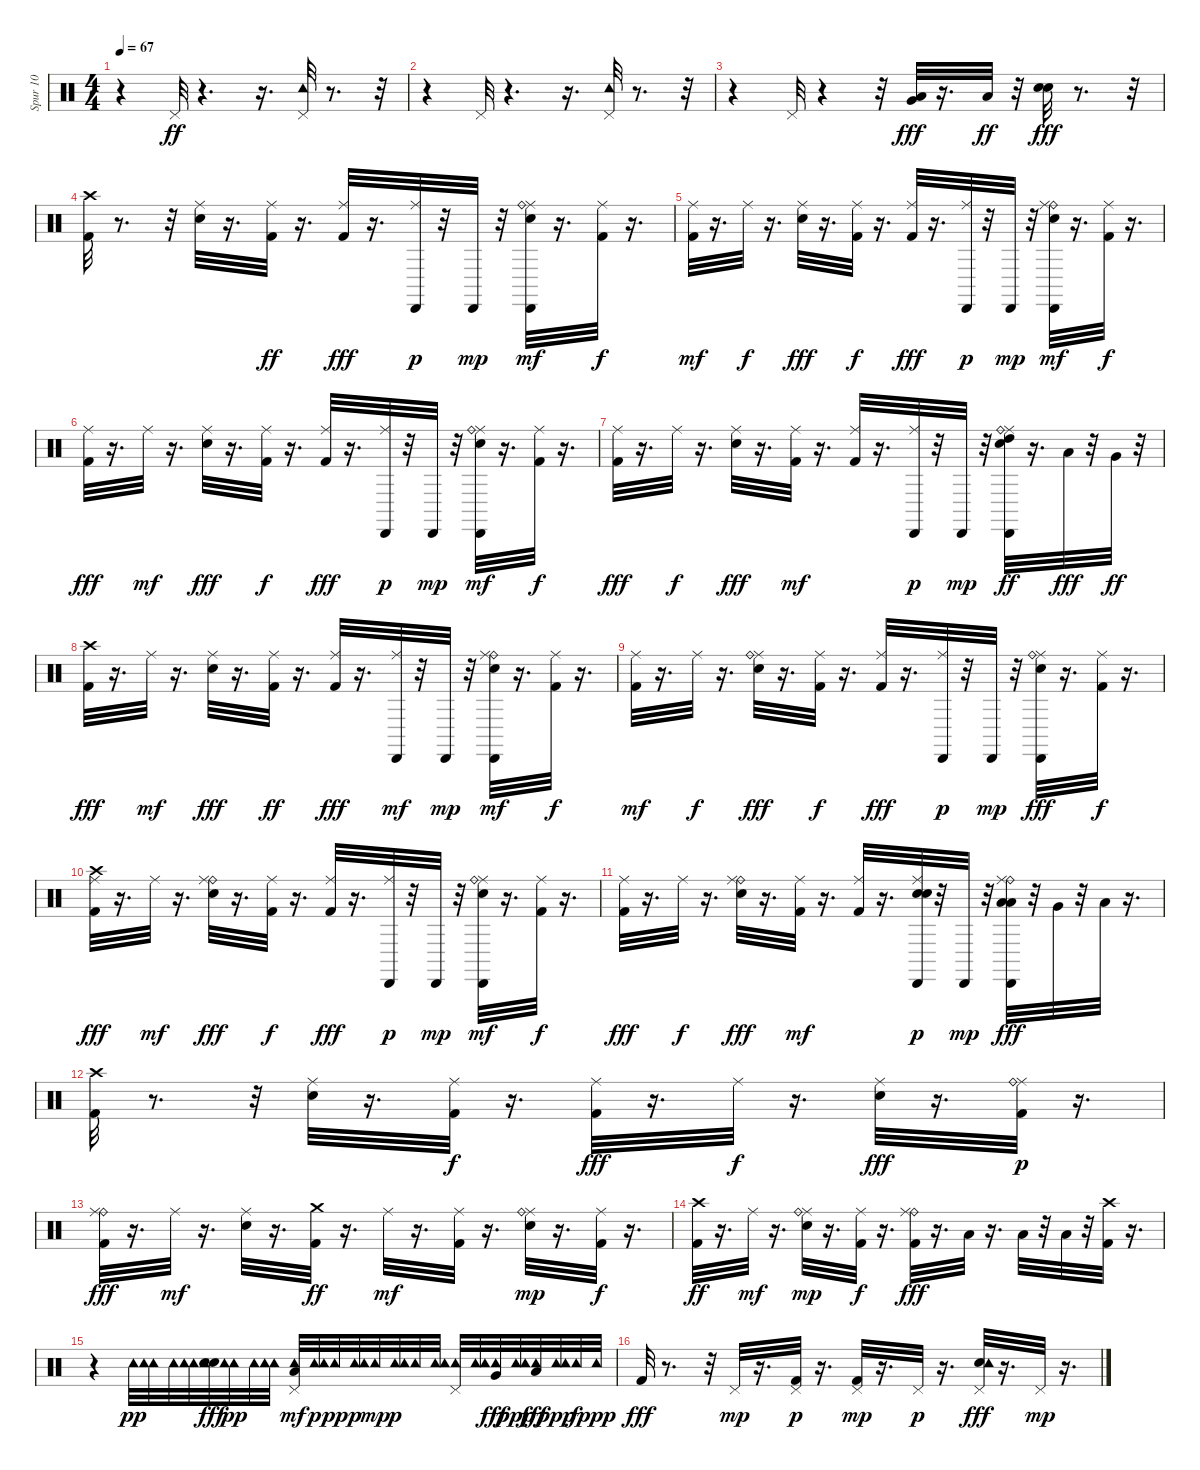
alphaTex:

\track ("Spur 10" "Spur 10") {instrument percussion}
\staff {score}
\articulation defaults
\ts (4 4)
\tempo 67
\clef neutral
\ks c
r.4{dy ff} "Pedal Hi-Hat (hit)".32 r.4{d} r.16{d} ("Pedal Hi-Hat (hit)" "Tambourine (hit)").32 r.8{d} r.32 |
r.4 "Pedal Hi-Hat (hit)".32 r.4{d} r.16{d} ("Pedal Hi-Hat (hit)" "Tambourine (hit)").32 r.8{d} r.32 |
r.4 "Pedal Hi-Hat (hit)".32 r.4 r.32 ("Very Low Tom (hit)" "Low Tom (hit)").32{dy fff} r.16{d} "Low Floor Tom (hit)".32{dy ff} r.32 ("Snare (hit) 2" "Snare (hit) 2").32{dy fff} r.8{d} r.32 |
("Kick (hit) 2" "Crash high (hit)").32 r.8{d} r.32 ("Ride (middle)" "Snare (hit) 2").32 r.16{d} ("Kick (hit) 2" "Ride (middle)").32{dy ff} r.16{d} ("Kick (hit) 2" "Ride (middle)").32{dy fff} r.16{d} ("Ride (middle)" "Cabasa (hit)").32{dy p} r.32 "Cabasa (hit)".32{dy mp} r.32 ("Snare (hit) 2" "Ride (middle)" "Cabasa (hit)" "Ride (bell)").32{dy mf} r.16{d} ("Ride (middle)" "Kick (hit) 2").32{dy f} r.16{d} |
("Kick (hit) 2" "Ride (middle)").32{dy mf} r.16{d} "Ride (middle)".32{dy f} r.16{d} ("Ride (middle)" "Snare (hit) 2").32{dy fff} r.16{d} ("Ride (middle)" "Kick (hit) 2").32{dy f} r.16{d} ("Ride (middle)" "Kick (hit) 2").32{dy fff} r.16{d} ("Cabasa (hit)" "Ride (middle)").32{dy p} r.32 "Cabasa (hit)".32{dy mp} r.32 ("Snare (hit) 2" "Ride (bell)" "Ride (middle)" "Cabasa (hit)").32{dy mf} r.16{d} ("Kick (hit) 2" "Ride (middle)").32{dy f} r.16{d} |
("Ride (middle)" "Kick (hit) 2").32{dy fff} r.16{d} "Ride (middle)".32{dy mf} r.16{d} ("Ride (middle)" "Snare (hit) 2").32{dy fff} r.16{d} ("Ride (middle)" "Kick (hit) 2").32{dy f} r.16{d} ("Ride (middle)" "Kick (hit) 2").32{dy fff} r.16{d} ("Ride (middle)" "Cabasa (hit)").32{dy p} r.32 "Cabasa (hit)".32{dy mp} r.32 ("Snare (hit) 2" "Ride (middle)" "Ride (bell)" "Cabasa (hit)").32{dy mf} r.16{d} ("Ride (middle)" "Kick (hit) 2").32{dy f} r.16{d} |
("Ride (middle)" "Kick (hit) 2").32{dy fff} r.16{d} "Ride (middle)".32{dy f} r.16{d} ("Ride (middle)" "Snare (hit) 2").32{dy fff} r.16{d} ("Ride (middle)" "Kick (hit) 2").32{dy mf} r.16{d} ("Kick (hit) 2" "Ride (middle)").32 r.16{d} ("Ride (middle)" "Cabasa (hit)").32{dy p} r.32 "Cabasa (hit)".32{dy mp} r.32 ("Cabasa (hit)" "Ride (middle)" "Snare (hit) 2" "Ride (bell)" "High Tom (hit)").32{dy ff} r.16{d} "Low Tom (hit)".32{dy fff} r.32 "Very Low Tom (hit)".32{dy ff} r.32 |
("Crash high (hit)" "Kick (hit) 2").32{dy fff} r.16{d} "Ride (middle)".32{dy mf} r.16{d} ("Snare (hit) 2" "Ride (middle)").32{dy fff} r.16{d} ("Ride (middle)" "Kick (hit) 2").32{dy ff} r.16{d} ("Ride (middle)" "Kick (hit) 2").32{dy fff} r.16{d} ("Cabasa (hit)" "Ride (middle)").32{dy mf} r.32 "Cabasa (hit)".32{dy mp} r.32 ("Snare (hit) 2" "Ride (bell)" "Ride (middle)" "Cabasa (hit)").32{dy mf} r.16{d} ("Kick (hit) 2" "Ride (middle)").32{dy f} r.16{d} |
("Kick (hit) 2" "Ride (middle)").32{dy mf} r.16{d} "Ride (middle)".32{dy f} r.16{d} ("Ride (middle)" "Snare (hit) 2" "Ride (bell)").32{dy fff} r.16{d} ("Kick (hit) 2" "Ride (middle)").32{dy f} r.16{d} ("Ride (middle)" "Kick (hit) 2").32{dy fff} r.16{d} ("Cabasa (hit)" "Ride (middle)").32{dy p} r.32 "Cabasa (hit)".32{dy mp} r.32 ("Ride (middle)" "Ride (bell)" "Cabasa (hit)" "Snare (hit) 2").32{dy fff} r.16{d} ("Ride (middle)" "Kick (hit) 2").32{dy f} r.16{d} |
("Kick (hit) 2" "Crash high (hit)" "Ride (middle)").32{dy fff} r.16{d} "Ride (middle)".32{dy mf} r.16{d} ("Ride (bell)" "Ride (middle)" "Snare (hit) 2").32{dy fff} r.16{d} ("Ride (middle)" "Kick (hit) 2").32{dy f} r.16{d} ("Ride (middle)" "Kick (hit) 2").32{dy fff} r.16{d} ("Ride (middle)" "Cabasa (hit)").32{dy p} r.32 "Cabasa (hit)".32{dy mp} r.32 ("Snare (hit) 2" "Ride (middle)" "Ride (bell)" "Cabasa (hit)").32{dy mf} r.16{d} ("Ride (middle)" "Kick (hit) 2").32{dy f} r.16{d} |
("Ride (middle)" "Kick (hit) 2").32{dy fff} r.16{d} "Ride (middle)".32{dy f} r.16{d} ("Ride (bell)" "Ride (middle)" "Snare (hit) 2").32{dy fff} r.16{d} ("Ride (middle)" "Kick (hit) 2").32{dy mf} r.16{d} ("Kick (hit) 2" "Ride (middle)").32 r.16{d} ("Snare (hit) 2" "Ride (middle)" "Snare (hit) 2" "Cabasa (hit)").32{dy p} r.32 "Cabasa (hit)".32{dy mp} r.32 ("Low Tom (hit)" "Cabasa (hit)" "Ride (bell)" "Ride (middle)" "Low Tom (hit)").32{dy fff} r.32 "Very Low Tom (hit)".32 r.32 "Low Floor Tom (hit)".32 r.16{d} |
("Crash high (hit)" "Kick (hit) 2").32 r.8{d} r.32 ("Ride (middle)" "Snare (hit) 2").32 r.16{d} ("Ride (middle)" "Kick (hit) 2").32{dy f} r.16{d} ("Ride (middle)" "Kick (hit) 2").32{dy fff} r.16{d} "Ride (middle)".32{dy f} r.16{d} ("Ride (middle)" "Snare (hit) 2").32{dy fff} r.16{d} ("Kick (hit) 2" "Ride (middle)" "Ride (bell)").32{dy p} r.16{d} |
("Ride (bell)" "Ride (middle)" "Kick (hit) 2").32{dy fff} r.16{d} "Ride (middle)".32{dy mf} r.16{d} ("Snare (hit) 2" "Ride (middle)").32 r.16{d} ("Kick (hit) 2" "Crash medium (hit)").32{dy ff} r.16{d} "Ride (middle)".32{dy mf} r.16{d} ("Kick (hit) 2" "Ride (middle)").32 r.16{d} ("Ride (middle)" "Snare (hit) 2" "Ride (bell)").32{dy mp} r.16{d} ("Ride (middle)" "Kick (hit) 2").32{dy f} r.16{d} |
("Kick (hit) 2" "Crash high (hit)").32{dy ff} r.16{d} "Ride (middle)".32{dy mf} r.16{d} ("Snare (hit) 2" "Ride (middle)" "Ride (bell)").32{dy mp} r.16{d} ("Kick (hit) 2" "Ride (middle)").32{dy f} r.16{d} ("Ride (bell)" "Ride (middle)" "Kick (hit) 2").32{dy fff} r.16{d} "Low Tom (hit)".32 r.16{d} "Low Floor Tom (hit)".32 r.32 "Low Floor Tom (hit)".32 r.32 ("Kick (hit) 2" "Crash high (hit)").32 r.16{d} |
r.4 "Tambourine (hit)".32{dy pp} ("Tambourine (hit)" "Tambourine (hit)").32 "Tambourine (hit)".32 ("Tambourine (hit)" "Tambourine (hit)").32 ("Snare (hit) 2" "Tambourine (hit)" "Snare (hit) 2").32{dy fff} ("Tambourine (hit)" "Tambourine (hit)").32{dy pp} "Tambourine (hit)".32 ("Tambourine (hit)" "Tambourine (hit)").32 ("Tambourine (hit)" "Low Tom (hit)" "Pedal Hi-Hat (hit)").32{dy mf} ("Tambourine (hit)" "Tambourine (hit)").32{dy p} "Tambourine (hit)".32{dy pp} ("Tambourine (hit)" "Tambourine (hit)").32{dy p} "Tambourine (hit)".32{dy mp} ("Tambourine (hit)" "Tambourine (hit)").32{dy p} "Tambourine (hit)".32 ("Tambourine (hit)" "Tambourine (hit)").32 ("Tambourine (hit)" "Pedal Hi-Hat (hit)").32 ("Tambourine (hit)" "Tambourine (hit)").32 ("Tambourine (hit)" "Very Low Tom (hit)").32{dy fff} ("Tambourine (hit)" "Tambourine (hit)").32{dy ppp} ("Tambourine (hit)" "Low Floor Tom (hit)").32{dy fff} ("Tambourine (hit)" "Tambourine (hit)").32{dy ppp} "Tambourine (hit)".32{dy f} "Tambourine (hit)".32{dy ppp} |
"Kick (hit) 2".32{dy fff} r.8{d} r.32 "Pedal Hi-Hat (hit)".32{dy mp} r.16{d} ("Pedal Hi-Hat (hit)" "Kick (hit) 2").32{dy p} r.16{d} ("Kick (hit) 2" "Pedal Hi-Hat (hit)").32{dy mp} r.16{d} "Pedal Hi-Hat (hit)".32{dy p} r.16{d} ("Snare (hit) 2" "Pedal Hi-Hat (hit)" "Tambourine (hit)").32{dy fff} r.16{d} "Pedal Hi-Hat (hit)".32{dy mp} r.16{d}
